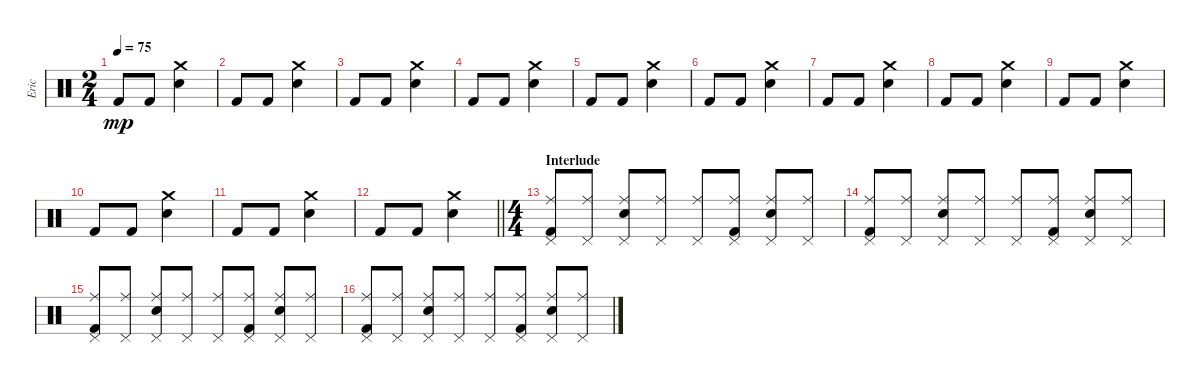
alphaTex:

\track ("Eric" "Eric") {instrument percussion}
\staff {score}
\articulation defaults
\ts (2 4)
\tempo 75
\clef neutral
\ks c "Kick (hit) 2".8{dy mp} "Kick (hit) 2".8
("Crash medium (hit)" "Snare (hit) 2").4 |
"Kick (hit) 2".8 "Kick (hit) 2".8 ("Crash medium (hit)" "Snare (hit) 2").4 |
"Kick (hit) 2".8 "Kick (hit) 2".8 ("Crash medium (hit)" "Snare (hit) 2").4 |
"Kick (hit) 2".8 "Kick (hit) 2".8 ("Crash medium (hit)" "Snare (hit) 2").4 |
"Kick (hit) 2".8 "Kick (hit) 2".8 ("Crash medium (hit)" "Snare (hit) 2").4 |
"Kick (hit) 2".8 "Kick (hit) 2".8 ("Crash medium (hit)" "Snare (hit) 2").4 |
"Kick (hit) 2".8 "Kick (hit) 2".8 ("Crash medium (hit)" "Snare (hit) 2").4 |
"Kick (hit) 2".8 "Kick (hit) 2".8 ("Crash medium (hit)" "Snare (hit) 2").4 |
"Kick (hit) 2".8 "Kick (hit) 2".8 ("Crash medium (hit)" "Snare (hit) 2").4 |
"Kick (hit) 2".8 "Kick (hit) 2".8 ("Crash medium (hit)" "Snare (hit) 2").4 |
"Kick (hit) 2".8 "Kick (hit) 2".8 ("Crash medium (hit)" "Snare (hit) 2").4 |
\barLineRight lightlight "Kick (hit) 2".8 "Kick (hit) 2".8
("Crash medium (hit)" "Snare (hit) 2").4 |
\ts (4 4)
\section ("" "Interlude")
("Ride (middle)" "Pedal Hi-Hat (hit)" "Kick (hit) 2").8 ("Ride (middle)" "Pedal Hi-Hat (hit)").8 ("Ride (middle)" "Pedal Hi-Hat (hit)" "Snare (hit) 2").8 ("Ride (middle)" "Pedal Hi-Hat (hit)").8 ("Ride (middle)" "Pedal Hi-Hat (hit)").8 ("Ride (middle)" "Pedal Hi-Hat (hit)" "Kick (hit) 2").8 ("Ride (middle)" "Pedal Hi-Hat (hit)" "Snare (hit) 2").8 ("Ride (middle)" "Pedal Hi-Hat (hit)").8 |
("Ride (middle)" "Pedal Hi-Hat (hit)" "Kick (hit) 2").8 ("Ride (middle)" "Pedal Hi-Hat (hit)").8 ("Ride (middle)" "Pedal Hi-Hat (hit)" "Snare (hit) 2").8 ("Ride (middle)" "Pedal Hi-Hat (hit)").8 ("Ride (middle)" "Pedal Hi-Hat (hit)").8 ("Ride (middle)" "Pedal Hi-Hat (hit)" "Kick (hit) 2").8 ("Ride (middle)" "Pedal Hi-Hat (hit)" "Snare (hit) 2").8 ("Ride (middle)" "Pedal Hi-Hat (hit)").8 |
("Ride (middle)" "Pedal Hi-Hat (hit)" "Kick (hit) 2").8 ("Ride (middle)" "Pedal Hi-Hat (hit)").8 ("Ride (middle)" "Pedal Hi-Hat (hit)" "Snare (hit) 2").8 ("Ride (middle)" "Pedal Hi-Hat (hit)").8 ("Ride (middle)" "Pedal Hi-Hat (hit)").8 ("Ride (middle)" "Pedal Hi-Hat (hit)" "Kick (hit) 2").8 ("Ride (middle)" "Pedal Hi-Hat (hit)" "Snare (hit) 2").8 ("Ride (middle)" "Pedal Hi-Hat (hit)").8 |
("Ride (middle)" "Pedal Hi-Hat (hit)" "Kick (hit) 2").8 ("Ride (middle)" "Pedal Hi-Hat (hit)").8 ("Ride (middle)" "Pedal Hi-Hat (hit)" "Snare (hit) 2").8 ("Ride (middle)" "Pedal Hi-Hat (hit)").8 ("Ride (middle)" "Pedal Hi-Hat (hit)").8 ("Ride (middle)" "Pedal Hi-Hat (hit)" "Kick (hit) 2").8 ("Ride (middle)" "Pedal Hi-Hat (hit)" "Snare (hit) 2").8 ("Ride (middle)" "Pedal Hi-Hat (hit)").8
